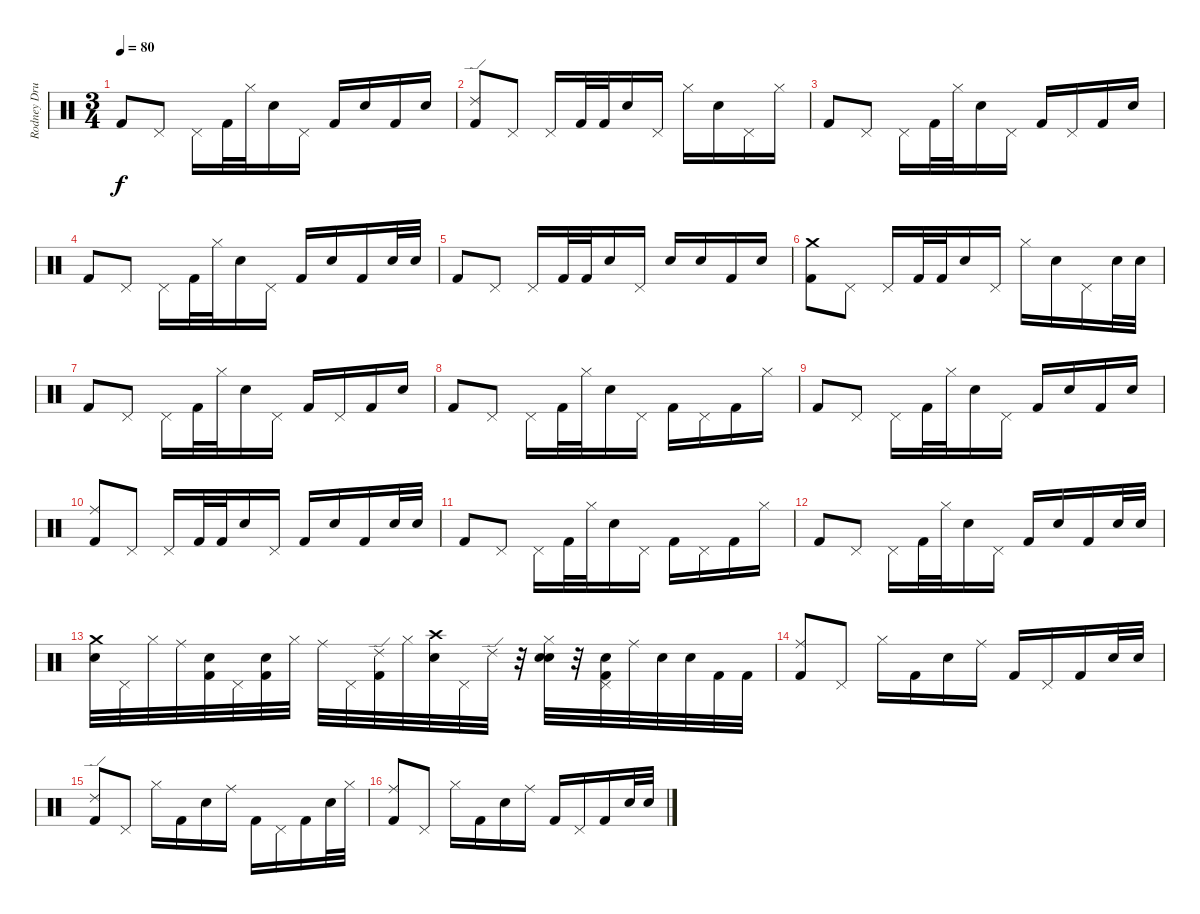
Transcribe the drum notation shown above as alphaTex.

\track ("Rodney Drums" "Rodney Dru") {instrument percussion}
\staff {score}
\articulation defaults
\ts (3 4)
\tempo 80
\clef neutral
\ks c "Kick (hit) 2".8{dy f} "Pedal Hi-Hat (hit)".8 "Pedal Hi-Hat (hit)".16 "Kick (hit) 2".32 "Hi-Hat (closed)".32 "Electric Snare (hit)".16 "Pedal Hi-Hat (hit)".16 "Kick (hit) 2".16 "Electric Snare (hit)".16 "Kick (hit) 2".16 "Electric Snare (hit)".16
|
("Ride (edge) 2" "Kick (hit) 2").8 "Pedal Hi-Hat (hit)".8 "Pedal Hi-Hat (hit)".16 "Kick (hit) 2".32 "Kick (hit) 2".32 "Electric Snare (hit)".16 "Pedal Hi-Hat (hit)".16 "Hi-Hat (closed)".16 "Electric Snare (hit)".16 "Pedal Hi-Hat (hit)".16 "Hi-Hat (closed)".16 |
"Kick (hit) 2".8 "Pedal Hi-Hat (hit)".8 "Pedal Hi-Hat (hit)".16 "Kick (hit) 2".32 "Hi-Hat (closed)".32 "Electric Snare (hit)".16 "Pedal Hi-Hat (hit)".16 "Kick (hit) 2".16 "Pedal Hi-Hat (hit)".16 "Kick (hit) 2".16 "Electric Snare (hit)".16 |
"Kick (hit) 2".8 "Pedal Hi-Hat (hit)".8 "Pedal Hi-Hat (hit)".16 "Kick (hit) 2".32 "Hi-Hat (closed)".32 "Electric Snare (hit)".16 "Pedal Hi-Hat (hit)".16 "Kick (hit) 2".16 "Electric Snare (hit)".16 "Kick (hit) 2".16 "Electric Snare (hit)".32 "Electric Snare (hit)".32 |
"Kick (hit) 2".8 "Pedal Hi-Hat (hit)".8 "Pedal Hi-Hat (hit)".16 "Kick (hit) 2".32 "Kick (hit) 2".32 "Electric Snare (hit)".16 "Pedal Hi-Hat (hit)".16 "Electric Snare (hit)".16 "Electric Snare (hit)".16 "Kick (hit) 2".16 "Electric Snare (hit)".16 |
("Crash medium (hit)" "Kick (hit) 2").8 "Pedal Hi-Hat (hit)".8 "Pedal Hi-Hat (hit)".16 "Kick (hit) 2".32 "Kick (hit) 2".32 "Electric Snare (hit)".16 "Pedal Hi-Hat (hit)".16 "Hi-Hat (closed)".16 "Electric Snare (hit)".16 "Pedal Hi-Hat (hit)".16 "Electric Snare (hit)".32 "Electric Snare (hit)".32 |
"Kick (hit) 2".8 "Pedal Hi-Hat (hit)".8 "Pedal Hi-Hat (hit)".16 "Kick (hit) 2".32 "Hi-Hat (closed)".32 "Electric Snare (hit)".16 "Pedal Hi-Hat (hit)".16 "Kick (hit) 2".16 "Pedal Hi-Hat (hit)".16 "Kick (hit) 2".16 "Electric Snare (hit)".16 |
"Kick (hit) 2".8 "Pedal Hi-Hat (hit)".8 "Pedal Hi-Hat (hit)".16 "Kick (hit) 2".32 "Hi-Hat (closed)".32 "Electric Snare (hit)".16 "Pedal Hi-Hat (hit)".16 "Kick (hit) 2".16 "Pedal Hi-Hat (hit)".16 "Kick (hit) 2".16 "Hi-Hat (closed)".16 |
"Kick (hit) 2".8 "Pedal Hi-Hat (hit)".8 "Pedal Hi-Hat (hit)".16 "Kick (hit) 2".32 "Hi-Hat (closed)".32 "Electric Snare (hit)".16 "Pedal Hi-Hat (hit)".16 "Kick (hit) 2".16 "Electric Snare (hit)".16 "Kick (hit) 2".16 "Electric Snare (hit)".16 |
("Ride (middle)" "Kick (hit) 2").8 "Pedal Hi-Hat (hit)".8 "Pedal Hi-Hat (hit)".16 "Kick (hit) 2".32 "Kick (hit) 2".32 "Electric Snare (hit)".16 "Pedal Hi-Hat (hit)".16 "Kick (hit) 2".16 "Electric Snare (hit)".16 "Kick (hit) 2".16 "Electric Snare (hit)".32 "Electric Snare (hit)".32 |
"Kick (hit) 2".8 "Pedal Hi-Hat (hit)".8 "Pedal Hi-Hat (hit)".16 "Kick (hit) 2".32 "Hi-Hat (closed)".32 "Electric Snare (hit)".16 "Pedal Hi-Hat (hit)".16 "Kick (hit) 2".16 "Pedal Hi-Hat (hit)".16 "Kick (hit) 2".16 "Hi-Hat (closed)".16 |
"Kick (hit) 2".8 "Pedal Hi-Hat (hit)".8 "Pedal Hi-Hat (hit)".16 "Kick (hit) 2".32 "Hi-Hat (closed)".32 "Electric Snare (hit)".16 "Pedal Hi-Hat (hit)".16 "Kick (hit) 2".16 "Electric Snare (hit)".16 "Kick (hit) 2".16 "Electric Snare (hit)".32 "Electric Snare (hit)".32 |
("Crash medium (hit)" "Electric Snare (hit)").32 "Pedal Hi-Hat (hit)".32 "Hi-Hat (closed)".32 "Ride (middle)".32 ("Electric Snare (hit)" "Kick (hit) 2").32 "Pedal Hi-Hat (hit)".32 ("Electric Snare (hit)" "Kick (hit) 2").32 "Hi-Hat (closed)".32 "Ride (middle)".32 "Pedal Hi-Hat (hit)".32 ("Kick (hit) 2" "Ride (edge) 2").32 "Hi-Hat (closed)".32 ("Crash high (hit)" "Electric Snare (hit)").32 "Pedal Hi-Hat (hit)".32 "Ride (edge) 2".32 r.32 ("Hi-Hat (closed)" "Electric Snare (hit)" "Electric Snare (hit)").32 r.32 ("Pedal Hi-Hat (hit)" "Electric Snare (hit)" "Kick (hit) 2").32 "Ride (middle)".32 "Electric Snare (hit)".32 "Electric Snare (hit)".32 "Kick (hit) 2".32 "Kick (hit) 2".32 |
("Kick (hit) 2" "Ride (middle)").8 "Pedal Hi-Hat (hit)".8 "Hi-Hat (closed)".16 "Kick (hit) 2".16 "Electric Snare (hit)".16 "Ride (middle)".16 "Kick (hit) 2".16 "Pedal Hi-Hat (hit)".16 "Kick (hit) 2".16 "Electric Snare (hit)".32 "Electric Snare (hit)".32 |
("Kick (hit) 2" "Ride (edge) 2").8 "Pedal Hi-Hat (hit)".8 "Hi-Hat (closed)".16 "Kick (hit) 2".16 "Electric Snare (hit)".16 "Ride (middle)".16 "Kick (hit) 2".16 "Pedal Hi-Hat (hit)".16 "Kick (hit) 2".16 "Electric Snare (hit)".32 "Hi-Hat (closed)".32 |
("Kick (hit) 2" "Ride (middle)").8 "Pedal Hi-Hat (hit)".8 "Hi-Hat (closed)".16 "Kick (hit) 2".16 "Electric Snare (hit)".16 "Ride (middle)".16 "Kick (hit) 2".16 "Pedal Hi-Hat (hit)".16 "Kick (hit) 2".16 "Electric Snare (hit)".32 "Electric Snare (hit)".32
